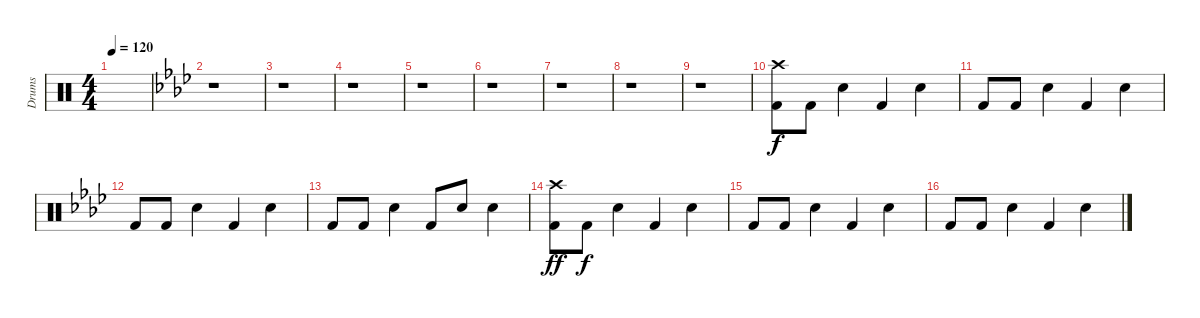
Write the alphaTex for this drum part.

\track ("Drums" "Drums") {instrument percussion}
\staff {score}
\articulation defaults
\ts (4 4)
\tempo 120
\clef neutral
\ks c
|
\ks ab
r.1 |
r.1 |
r.1 |
r.1 |
r.1 |
r.1 |
r.1 |
r.1 |
("Crash high (hit)" "Kick (hit) 2").8 "Kick (hit) 2".8{dy f} "Electric Snare (hit)".4 "Kick (hit) 2".4 "Electric Snare (hit)".4 |
"Kick (hit) 2".8 "Kick (hit) 2".8 "Electric Snare (hit)".4 "Kick (hit) 2".4 "Electric Snare (hit)".4 |
"Kick (hit) 2".8 "Kick (hit) 2".8 "Electric Snare (hit)".4 "Kick (hit) 2".4 "Electric Snare (hit)".4 |
"Kick (hit) 2".8 "Kick (hit) 2".8 "Electric Snare (hit)".4 "Kick (hit) 2".8 "Electric Snare (hit)".8 "Electric Snare (hit)".4 |
("Crash high (hit)" "Kick (hit) 2").8{dy ff} "Kick (hit) 2".8{dy f} "Electric Snare (hit)".4 "Kick (hit) 2".4 "Electric Snare (hit)".4 |
"Kick (hit) 2".8 "Kick (hit) 2".8 "Electric Snare (hit)".4 "Kick (hit) 2".4 "Electric Snare (hit)".4 |
"Kick (hit) 2".8 "Kick (hit) 2".8 "Electric Snare (hit)".4 "Kick (hit) 2".4 "Electric Snare (hit)".4
